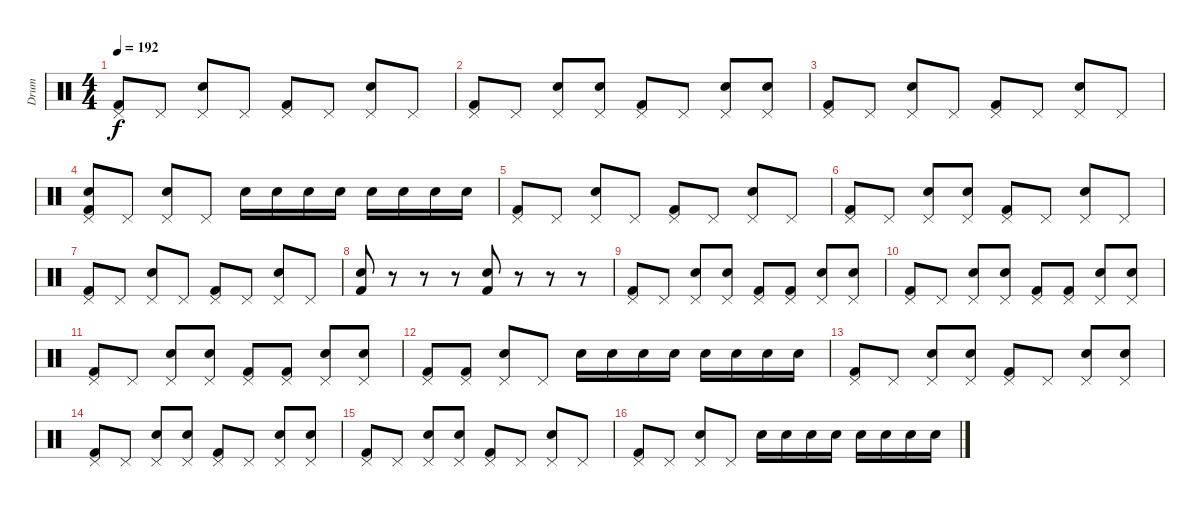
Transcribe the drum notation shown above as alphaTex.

\track ("Drum" "Drum") {instrument percussion}
\staff {score}
\articulation defaults
\ts (4 4)
\tempo 192
\clef neutral
\ks c
("Pedal Hi-Hat (hit)" "Kick (hit) 2").8{dy f} "Pedal Hi-Hat (hit)".8 ("Pedal Hi-Hat (hit)" "Electric Snare (hit)").8 "Pedal Hi-Hat (hit)".8 ("Pedal Hi-Hat (hit)" "Kick (hit) 2").8 "Pedal Hi-Hat (hit)".8 ("Pedal Hi-Hat (hit)" "Electric Snare (hit)").8 "Pedal Hi-Hat (hit)".8 |
("Pedal Hi-Hat (hit)" "Kick (hit) 2").8 "Pedal Hi-Hat (hit)".8 ("Pedal Hi-Hat (hit)" "Electric Snare (hit)").8 ("Pedal Hi-Hat (hit)" "Electric Snare (hit)").8 ("Pedal Hi-Hat (hit)" "Kick (hit) 2").8 "Pedal Hi-Hat (hit)".8 ("Pedal Hi-Hat (hit)" "Electric Snare (hit)").8 ("Pedal Hi-Hat (hit)" "Electric Snare (hit)").8 |
("Pedal Hi-Hat (hit)" "Kick (hit) 2").8 "Pedal Hi-Hat (hit)".8 ("Pedal Hi-Hat (hit)" "Electric Snare (hit)").8 "Pedal Hi-Hat (hit)".8 ("Pedal Hi-Hat (hit)" "Kick (hit) 2").8 "Pedal Hi-Hat (hit)".8 ("Pedal Hi-Hat (hit)" "Electric Snare (hit)").8 "Pedal Hi-Hat (hit)".8 |
("Pedal Hi-Hat (hit)" "Electric Snare (hit)" "Kick (hit) 2").8 "Pedal Hi-Hat (hit)".8 ("Pedal Hi-Hat (hit)" "Electric Snare (hit)").8 "Pedal Hi-Hat (hit)".8 "Electric Snare (hit)".16 "Electric Snare (hit)".16 "Electric Snare (hit)".16 "Electric Snare (hit)".16 "Electric Snare (hit)".16 "Electric Snare (hit)".16 "Electric Snare (hit)".16 "Electric Snare (hit)".16 |
("Pedal Hi-Hat (hit)" "Kick (hit) 2").8 "Pedal Hi-Hat (hit)".8 ("Pedal Hi-Hat (hit)" "Electric Snare (hit)").8 "Pedal Hi-Hat (hit)".8 ("Pedal Hi-Hat (hit)" "Kick (hit) 2").8 "Pedal Hi-Hat (hit)".8 ("Pedal Hi-Hat (hit)" "Electric Snare (hit)").8 "Pedal Hi-Hat (hit)".8 |
("Pedal Hi-Hat (hit)" "Kick (hit) 2").8 "Pedal Hi-Hat (hit)".8 ("Pedal Hi-Hat (hit)" "Electric Snare (hit)").8 ("Pedal Hi-Hat (hit)" "Electric Snare (hit)").8 ("Pedal Hi-Hat (hit)" "Kick (hit) 2").8 "Pedal Hi-Hat (hit)".8 ("Pedal Hi-Hat (hit)" "Electric Snare (hit)").8 "Pedal Hi-Hat (hit)".8 |
("Pedal Hi-Hat (hit)" "Kick (hit) 2").8 "Pedal Hi-Hat (hit)".8 ("Pedal Hi-Hat (hit)" "Electric Snare (hit)").8 "Pedal Hi-Hat (hit)".8 ("Pedal Hi-Hat (hit)" "Kick (hit) 2").8 "Pedal Hi-Hat (hit)".8 ("Pedal Hi-Hat (hit)" "Electric Snare (hit)").8 "Pedal Hi-Hat (hit)".8 |
("Electric Snare (hit)" "Kick (hit) 2").8 r.8 r.8 r.8 ("Electric Snare (hit)" "Kick (hit) 2").8 r.8 r.8 r.8 |
("Pedal Hi-Hat (hit)" "Kick (hit) 2").8 "Pedal Hi-Hat (hit)".8 ("Pedal Hi-Hat (hit)" "Electric Snare (hit)").8 ("Pedal Hi-Hat (hit)" "Electric Snare (hit)").8 ("Pedal Hi-Hat (hit)" "Kick (hit) 2").8 ("Pedal Hi-Hat (hit)" "Kick (hit) 2").8 ("Pedal Hi-Hat (hit)" "Electric Snare (hit)").8 ("Pedal Hi-Hat (hit)" "Electric Snare (hit)").8 |
("Pedal Hi-Hat (hit)" "Kick (hit) 2").8 "Pedal Hi-Hat (hit)".8 ("Pedal Hi-Hat (hit)" "Electric Snare (hit)").8 ("Pedal Hi-Hat (hit)" "Electric Snare (hit)").8 ("Pedal Hi-Hat (hit)" "Kick (hit) 2").8 ("Pedal Hi-Hat (hit)" "Kick (hit) 2").8 ("Pedal Hi-Hat (hit)" "Electric Snare (hit)").8 ("Pedal Hi-Hat (hit)" "Electric Snare (hit)").8 |
("Pedal Hi-Hat (hit)" "Kick (hit) 2").8 "Pedal Hi-Hat (hit)".8 ("Pedal Hi-Hat (hit)" "Electric Snare (hit)").8 ("Pedal Hi-Hat (hit)" "Electric Snare (hit)").8 ("Pedal Hi-Hat (hit)" "Kick (hit) 2").8 ("Pedal Hi-Hat (hit)" "Kick (hit) 2").8 ("Pedal Hi-Hat (hit)" "Electric Snare (hit)").8 ("Pedal Hi-Hat (hit)" "Electric Snare (hit)").8 |
("Pedal Hi-Hat (hit)" "Kick (hit) 2").8 ("Pedal Hi-Hat (hit)" "Kick (hit) 2").8 ("Pedal Hi-Hat (hit)" "Electric Snare (hit)").8 "Pedal Hi-Hat (hit)".8 "Electric Snare (hit)".16 "Electric Snare (hit)".16 "Electric Snare (hit)".16 "Electric Snare (hit)".16 "Electric Snare (hit)".16 "Electric Snare (hit)".16 "Electric Snare (hit)".16 "Electric Snare (hit)".16 |
("Pedal Hi-Hat (hit)" "Kick (hit) 2").8 "Pedal Hi-Hat (hit)".8 ("Pedal Hi-Hat (hit)" "Electric Snare (hit)").8 ("Pedal Hi-Hat (hit)" "Electric Snare (hit)").8 ("Pedal Hi-Hat (hit)" "Kick (hit) 2").8 "Pedal Hi-Hat (hit)".8 ("Pedal Hi-Hat (hit)" "Electric Snare (hit)").8 ("Pedal Hi-Hat (hit)" "Electric Snare (hit)").8 |
("Pedal Hi-Hat (hit)" "Kick (hit) 2").8 "Pedal Hi-Hat (hit)".8 ("Pedal Hi-Hat (hit)" "Electric Snare (hit)").8 ("Pedal Hi-Hat (hit)" "Electric Snare (hit)").8 ("Pedal Hi-Hat (hit)" "Kick (hit) 2").8 "Pedal Hi-Hat (hit)".8 ("Pedal Hi-Hat (hit)" "Electric Snare (hit)").8 ("Pedal Hi-Hat (hit)" "Electric Snare (hit)").8 |
("Pedal Hi-Hat (hit)" "Kick (hit) 2").8 "Pedal Hi-Hat (hit)".8 ("Pedal Hi-Hat (hit)" "Electric Snare (hit)").8 ("Pedal Hi-Hat (hit)" "Electric Snare (hit)").8 ("Pedal Hi-Hat (hit)" "Kick (hit) 2").8 "Pedal Hi-Hat (hit)".8 ("Pedal Hi-Hat (hit)" "Electric Snare (hit)").8 "Pedal Hi-Hat (hit)".8 |
("Pedal Hi-Hat (hit)" "Kick (hit) 2").8 "Pedal Hi-Hat (hit)".8 ("Pedal Hi-Hat (hit)" "Electric Snare (hit)").8 "Pedal Hi-Hat (hit)".8 "Electric Snare (hit)".16 "Electric Snare (hit)".16 "Electric Snare (hit)".16 "Electric Snare (hit)".16 "Electric Snare (hit)".16 "Electric Snare (hit)".16 "Electric Snare (hit)".16 "Electric Snare (hit)".16
